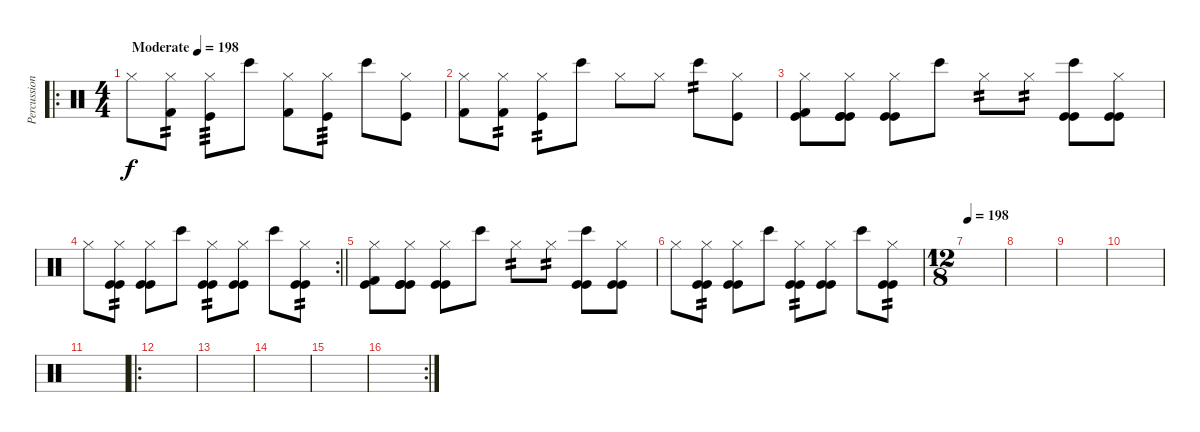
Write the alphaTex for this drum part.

\track ("Percussion" "Percussion") {instrument percussion}
\staff {score}
\articulation defaults
\ro
\ts (4 4)
\tempo (198 "Moderate")
\tempo 160
\tempo (198 "Moderate")
\clef neutral
\ks c "Hi-Hat (closed)".8{dy f volume 16}
("Hi-Hat (closed)" "Kick (hit) 2").8{tp 2} ("Hi-Hat (closed)" "Kick (hit)").8{tp 3} "Bongo High (hit)".8 ("Hi-Hat (closed)" "Kick (hit) 2").8 ("Hi-Hat (closed)" "Kick (hit)").8{tp 3} "Bongo High (hit)".8 ("Hi-Hat (closed)" "Kick (hit)").8 |
("Hi-Hat (closed)" "Kick (hit) 2").8 ("Hi-Hat (closed)" "Kick (hit) 2").8{tp 2} ("Hi-Hat (closed)" "Kick (hit)").8{tp 2} "Bongo High (hit)".8 "Hi-Hat (closed)".8 "Hi-Hat (closed)".8 "Bongo High (hit)".8{tp 2} ("Hi-Hat (closed)" "Kick (hit)").8 |
("Kick (hit)" "Hi-Hat (closed)" "Kick (hit) 2").8 ("Kick (hit)" "Kick (hit)" "Hi-Hat (closed)" "Kick (hit)").8 ("Kick (hit)" "Hi-Hat (closed)" "Kick (hit)").8 "Bongo High (hit)".8 "Hi-Hat (closed)".8{tp 2} "Hi-Hat (closed)".8{tp 2} ("Kick (hit)" "Bongo High (hit)" "Kick (hit)").8 ("Kick (hit)" "Hi-Hat (closed)" "Kick (hit)").8 |
\rc 2
\barLineRight lightlight "Hi-Hat (closed)".8
("Kick (hit)" "Hi-Hat (closed)" "Kick (hit)").8{tp 2} ("Kick (hit)" "Hi-Hat (closed)" "Kick (hit)").8 "Bongo High (hit)".8 ("Kick (hit)" "Hi-Hat (closed)" "Kick (hit)").8{tp 2} ("Kick (hit)" "Hi-Hat (closed)" "Kick (hit)").8 "Bongo High (hit)".8 ("Kick (hit)" "Hi-Hat (closed)" "Kick (hit)").8{tp 2} |
("Kick (hit)" "Hi-Hat (closed)" "Kick (hit) 2").8 ("Kick (hit)" "Kick (hit)" "Hi-Hat (closed)" "Kick (hit)").8 ("Kick (hit)" "Hi-Hat (closed)" "Kick (hit)").8 "Bongo High (hit)".8 "Hi-Hat (closed)".8{tp 2} "Hi-Hat (closed)".8{tp 2} ("Kick (hit)" "Bongo High (hit)" "Kick (hit)").8 ("Kick (hit)" "Hi-Hat (closed)" "Kick (hit)").8 |
"Hi-Hat (closed)".8 ("Kick (hit)" "Hi-Hat (closed)" "Kick (hit)").8{tp 2} ("Kick (hit)" "Hi-Hat (closed)" "Kick (hit)").8 "Bongo High (hit)".8 ("Kick (hit)" "Hi-Hat (closed)" "Kick (hit)").8{tp 2} ("Kick (hit)" "Hi-Hat (closed)" "Kick (hit)").8 "Bongo High (hit)".8 ("Kick (hit)" "Hi-Hat (closed)" "Kick (hit)").8{tp 2} |
\ts (12 8)
\tempo 198
|
|
|
|
|
\ro
|
|
|
|
\rc 2
